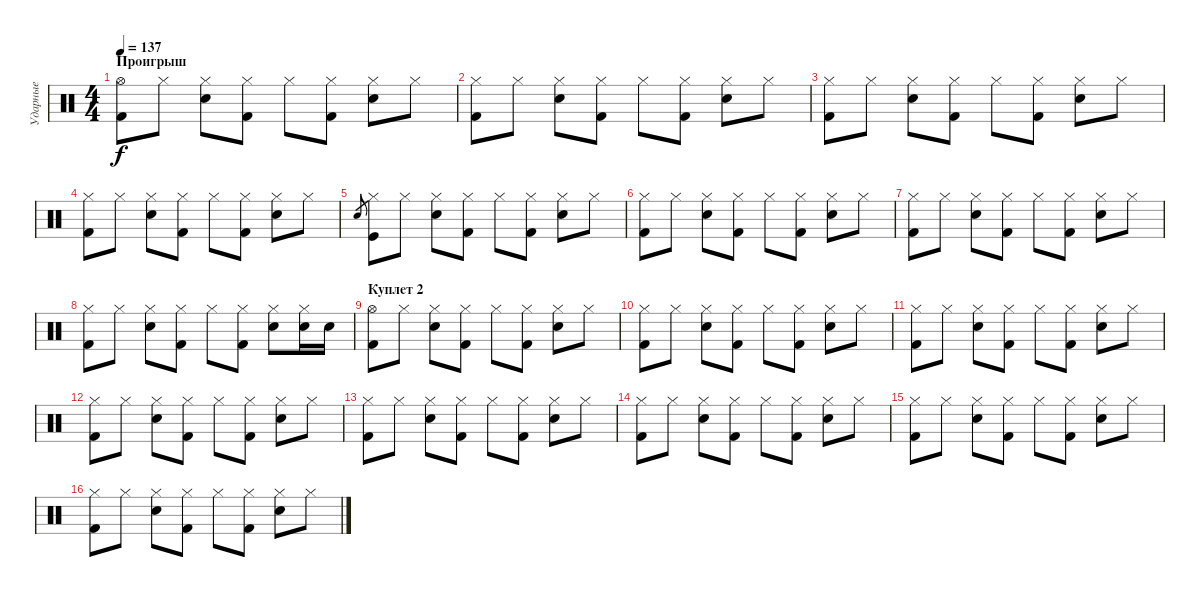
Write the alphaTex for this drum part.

\track ("Ударные" "Ударные") {instrument percussion}
\staff {score}
\articulation defaults
\ts (4 4)
\section ("" "Проигрыш")
\tempo 137
\clef neutral
\ks c
("Hi-Hat (open)" "Kick (hit) 2").8{dy f} "Hi-Hat (closed)".8 ("Hi-Hat (closed)" "Electric Snare (hit)").8 ("Hi-Hat (closed)" "Kick (hit) 2").8 "Hi-Hat (closed)".8 ("Hi-Hat (closed)" "Kick (hit) 2").8 ("Hi-Hat (closed)" "Electric Snare (hit)").8 "Hi-Hat (closed)".8 |
("Hi-Hat (closed)" "Kick (hit) 2").8 "Hi-Hat (closed)".8 ("Hi-Hat (closed)" "Electric Snare (hit)").8 ("Hi-Hat (closed)" "Kick (hit) 2").8 "Hi-Hat (closed)".8 ("Hi-Hat (closed)" "Kick (hit) 2").8 ("Hi-Hat (closed)" "Electric Snare (hit)").8 "Hi-Hat (closed)".8 |
("Hi-Hat (closed)" "Kick (hit) 2").8 "Hi-Hat (closed)".8 ("Hi-Hat (closed)" "Electric Snare (hit)").8 ("Hi-Hat (closed)" "Kick (hit) 2").8 "Hi-Hat (closed)".8 ("Hi-Hat (closed)" "Kick (hit) 2").8 ("Hi-Hat (closed)" "Electric Snare (hit)").8 "Hi-Hat (closed)".8 |
("Hi-Hat (closed)" "Kick (hit) 2").8 "Hi-Hat (closed)".8 ("Hi-Hat (closed)" "Electric Snare (hit)").8 ("Hi-Hat (closed)" "Kick (hit) 2").8 "Hi-Hat (closed)".8 ("Hi-Hat (closed)" "Kick (hit) 2").8 ("Hi-Hat (closed)" "Electric Snare (hit)").8 "Hi-Hat (closed)".8 |
"Electric Snare (hit)".8{gr} ("Hi-Hat (closed)" "Kick (hit)").8 "Hi-Hat (closed)".8 ("Hi-Hat (closed)" "Electric Snare (hit)").8 ("Hi-Hat (closed)" "Kick (hit) 2").8 "Hi-Hat (closed)".8 ("Hi-Hat (closed)" "Kick (hit) 2").8 ("Hi-Hat (closed)" "Electric Snare (hit)").8 "Hi-Hat (closed)".8 |
("Hi-Hat (closed)" "Kick (hit) 2").8 "Hi-Hat (closed)".8 ("Hi-Hat (closed)" "Electric Snare (hit)").8 ("Hi-Hat (closed)" "Kick (hit) 2").8 "Hi-Hat (closed)".8 ("Hi-Hat (closed)" "Kick (hit) 2").8 ("Hi-Hat (closed)" "Electric Snare (hit)").8 "Hi-Hat (closed)".8 |
("Hi-Hat (closed)" "Kick (hit) 2").8 "Hi-Hat (closed)".8 ("Hi-Hat (closed)" "Electric Snare (hit)").8 ("Hi-Hat (closed)" "Kick (hit) 2").8 "Hi-Hat (closed)".8 ("Hi-Hat (closed)" "Kick (hit) 2").8 ("Hi-Hat (closed)" "Electric Snare (hit)").8 "Hi-Hat (closed)".8 |
("Hi-Hat (closed)" "Kick (hit) 2").8 "Hi-Hat (closed)".8 ("Hi-Hat (closed)" "Electric Snare (hit)").8 ("Hi-Hat (closed)" "Kick (hit) 2").8 "Hi-Hat (closed)".8 ("Hi-Hat (closed)" "Kick (hit) 2").8 ("Hi-Hat (closed)" "Electric Snare (hit)").8 ("Hi-Hat (closed)" "Electric Snare (hit)").16 "Electric Snare (hit)".16 |
\section ("" "Куплет 2")
("Hi-Hat (open)" "Kick (hit) 2").8 "Hi-Hat (closed)".8 ("Hi-Hat (closed)" "Electric Snare (hit)").8 ("Hi-Hat (closed)" "Kick (hit) 2").8 "Hi-Hat (closed)".8 ("Hi-Hat (closed)" "Kick (hit) 2").8 ("Hi-Hat (closed)" "Electric Snare (hit)").8 "Hi-Hat (closed)".8 |
("Hi-Hat (closed)" "Kick (hit) 2").8 "Hi-Hat (closed)".8 ("Hi-Hat (closed)" "Electric Snare (hit)").8 ("Hi-Hat (closed)" "Kick (hit) 2").8 "Hi-Hat (closed)".8 ("Hi-Hat (closed)" "Kick (hit) 2").8 ("Hi-Hat (closed)" "Electric Snare (hit)").8 "Hi-Hat (closed)".8 |
("Hi-Hat (closed)" "Kick (hit) 2").8 "Hi-Hat (closed)".8 ("Hi-Hat (closed)" "Electric Snare (hit)").8 ("Hi-Hat (closed)" "Kick (hit) 2").8 "Hi-Hat (closed)".8 ("Hi-Hat (closed)" "Kick (hit) 2").8 ("Hi-Hat (closed)" "Electric Snare (hit)").8 "Hi-Hat (closed)".8 |
("Hi-Hat (closed)" "Kick (hit) 2").8 "Hi-Hat (closed)".8 ("Hi-Hat (closed)" "Electric Snare (hit)").8 ("Hi-Hat (closed)" "Kick (hit) 2").8 "Hi-Hat (closed)".8 ("Hi-Hat (closed)" "Kick (hit) 2").8 ("Hi-Hat (closed)" "Electric Snare (hit)").8 "Hi-Hat (closed)".8 |
("Hi-Hat (closed)" "Kick (hit) 2").8 "Hi-Hat (closed)".8 ("Hi-Hat (closed)" "Electric Snare (hit)").8 ("Hi-Hat (closed)" "Kick (hit) 2").8 "Hi-Hat (closed)".8 ("Hi-Hat (closed)" "Kick (hit) 2").8 ("Hi-Hat (closed)" "Electric Snare (hit)").8 "Hi-Hat (closed)".8 |
("Hi-Hat (closed)" "Kick (hit) 2").8 "Hi-Hat (closed)".8 ("Hi-Hat (closed)" "Electric Snare (hit)").8 ("Hi-Hat (closed)" "Kick (hit) 2").8 "Hi-Hat (closed)".8 ("Hi-Hat (closed)" "Kick (hit) 2").8 ("Hi-Hat (closed)" "Electric Snare (hit)").8 "Hi-Hat (closed)".8 |
("Hi-Hat (closed)" "Kick (hit) 2").8 "Hi-Hat (closed)".8 ("Hi-Hat (closed)" "Electric Snare (hit)").8 ("Hi-Hat (closed)" "Kick (hit) 2").8 "Hi-Hat (closed)".8 ("Hi-Hat (closed)" "Kick (hit) 2").8 ("Hi-Hat (closed)" "Electric Snare (hit)").8 "Hi-Hat (closed)".8 |
("Hi-Hat (closed)" "Kick (hit) 2").8 "Hi-Hat (closed)".8 ("Hi-Hat (closed)" "Electric Snare (hit)").8 ("Hi-Hat (closed)" "Kick (hit) 2").8 "Hi-Hat (closed)".8 ("Hi-Hat (closed)" "Kick (hit) 2").8 ("Hi-Hat (closed)" "Electric Snare (hit)").8 "Hi-Hat (closed)".8
